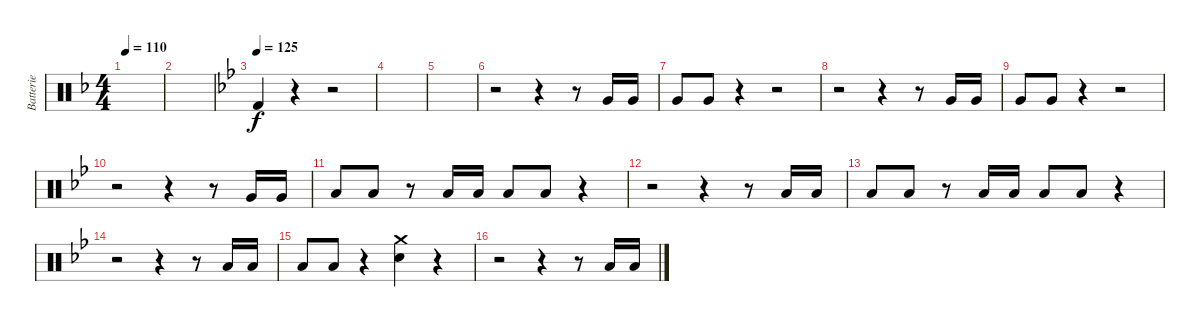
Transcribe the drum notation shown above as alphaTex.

\track ("Batterie" "Batterie") {instrument percussion}
\staff {score}
\articulation defaults
\ts (4 4)
\tempo 110
\clef neutral
\ks f
|
|
\tempo 125
\ks bb "Kick (hit) 2".4
r.4 r.2 |
|
|
r.2 r.4 r.8 "Very Low Tom (hit)".16 "Very Low Tom (hit)".16 |
"Very Low Tom (hit)".8 "Very Low Tom (hit)".8 r.4 r.2 |
r.2 r.4 r.8 "Very Low Tom (hit)".16 "Very Low Tom (hit)".16 |
"Very Low Tom (hit)".8 "Very Low Tom (hit)".8 r.4 r.2 |
r.2 r.4 r.8 "Very Low Tom (hit)".16 "Very Low Tom (hit)".16 |
"Low Floor Tom (hit)".8 "Low Floor Tom (hit)".8 r.8 "Low Floor Tom (hit)".16 "Low Floor Tom (hit)".16 "Low Floor Tom (hit)".8 "Low Floor Tom (hit)".8 r.4 |
r.2 r.4 r.8 "Low Floor Tom (hit)".16 "Low Floor Tom (hit)".16 |
"Low Floor Tom (hit)".8 "Low Floor Tom (hit)".8 r.8 "Low Floor Tom (hit)".16 "Low Floor Tom (hit)".16 "Low Floor Tom (hit)".8 "Low Floor Tom (hit)".8 r.4 |
r.2 r.4 r.8 "Low Floor Tom (hit)".16 "Low Floor Tom (hit)".16 |
"Low Floor Tom (hit)".8 "Low Floor Tom (hit)".8 r.4 ("Crash medium (hit)" "Electric Snare (hit)").4 r.4 |
r.2 r.4 r.8 "Low Floor Tom (hit)".16 "Low Floor Tom (hit)".16
